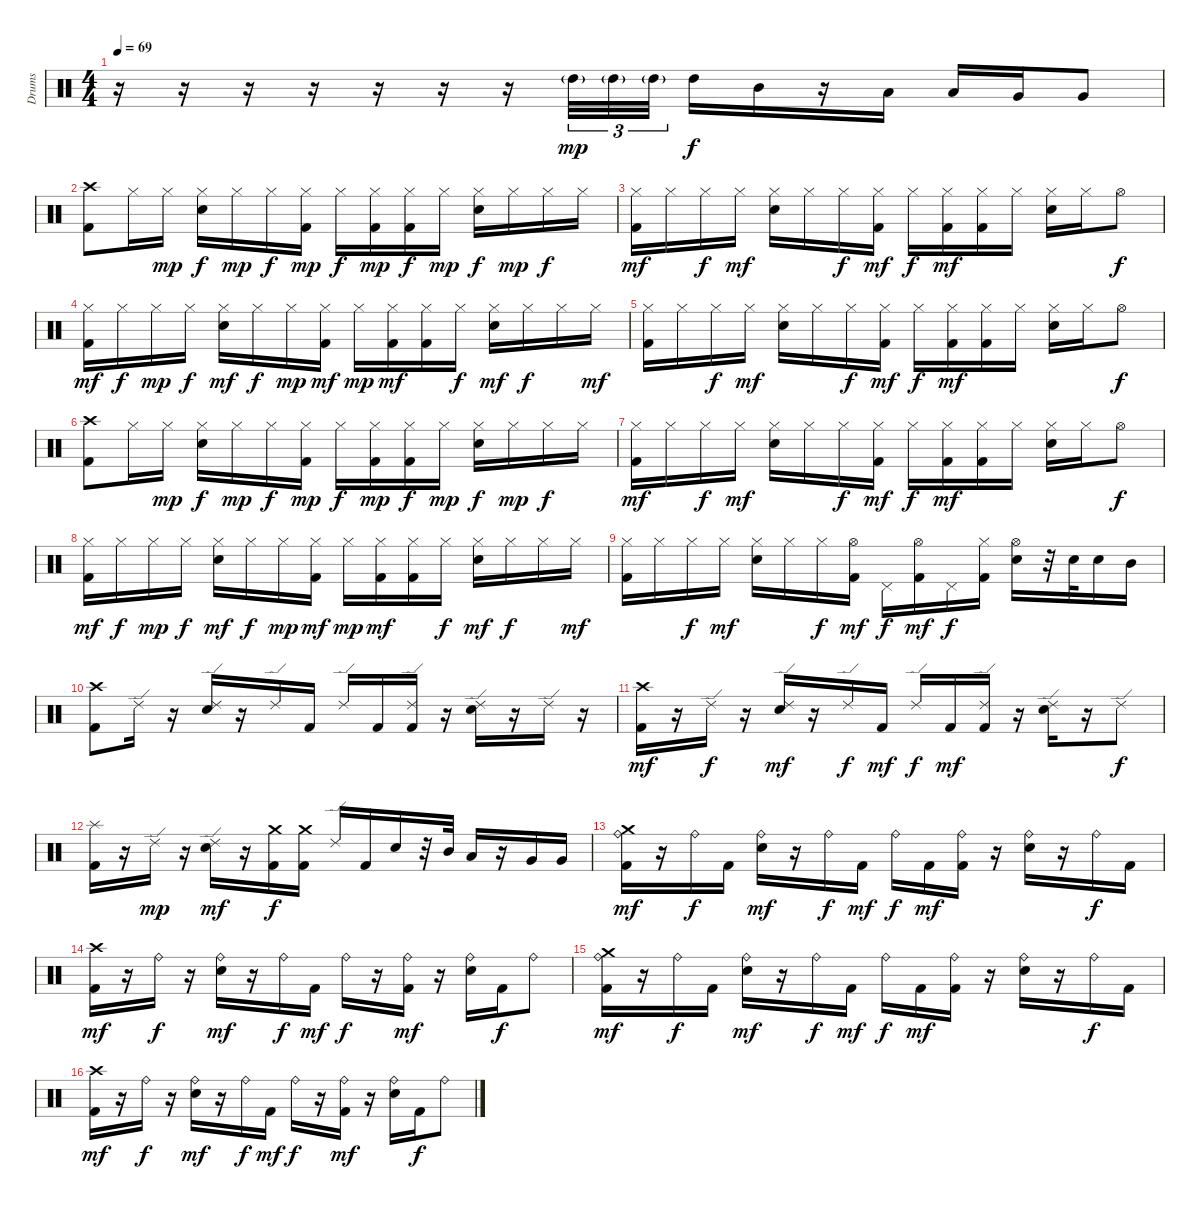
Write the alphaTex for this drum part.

\track ("Drums" "Drums") {instrument percussion}
\staff {score}
\articulation defaults
\ts (4 4)
\tempo 69
\clef neutral
\ks c
r.16{dy f} r.16 r.16 r.16 r.16 r.16 r.16 "High Tom (hit)"{g}.32{tu (3 2) dy mp} "High Tom (hit)"{g}.32{tu (3 2)} "High Tom (hit)"{g}.32{tu (3 2)} "High Tom (hit)".16{dy f} "Mid Tom (hit)".16 r.16 "Low Tom (hit)".16 "Low Tom (hit)".16 "Very Low Tom (hit)".16 "Very Low Tom (hit)".8 |
("Kick (hit) 2" "Crash high (hit)").8 "Hi-Hat (closed)".16 "Hi-Hat (closed)".16{dy mp} ("Hi-Hat (closed)" "Electric Snare (hit)").16{dy f} "Hi-Hat (closed)".16{dy mp} "Hi-Hat (closed)".16{dy f} ("Hi-Hat (closed)" "Kick (hit) 2").16{dy mp} "Hi-Hat (closed)".16{dy f} ("Hi-Hat (closed)" "Kick (hit) 2").16{dy mp} ("Hi-Hat (closed)" "Kick (hit) 2").16{dy f} "Hi-Hat (closed)".16{dy mp} ("Hi-Hat (closed)" "Electric Snare (hit)").16{dy f} "Hi-Hat (closed)".16{dy mp} "Hi-Hat (closed)".16{dy f} "Hi-Hat (closed)".16 |
("Hi-Hat (closed)" "Kick (hit) 2").16{dy mf} "Hi-Hat (closed)".16 "Hi-Hat (closed)".16{dy f} "Hi-Hat (closed)".16{dy mf} ("Hi-Hat (closed)" "Electric Snare (hit)").16 "Hi-Hat (closed)".16 "Hi-Hat (closed)".16{dy f} ("Hi-Hat (closed)" "Kick (hit) 2").16{dy mf} "Hi-Hat (closed)".16{dy f} ("Hi-Hat (closed)" "Kick (hit) 2").16{dy mf} ("Hi-Hat (closed)" "Kick (hit) 2").16 "Hi-Hat (closed)".16 ("Hi-Hat (closed)" "Electric Snare (hit)").16 "Hi-Hat (closed)".16 "Hi-Hat (open)".8{dy f} |
("Kick (hit) 2" "Hi-Hat (closed)").16{dy mf} "Hi-Hat (closed)".16{dy f} "Hi-Hat (closed)".16{dy mp} "Hi-Hat (closed)".16{dy f} ("Hi-Hat (closed)" "Electric Snare (hit)").16{dy mf} "Hi-Hat (closed)".16{dy f} "Hi-Hat (closed)".16{dy mp} ("Hi-Hat (closed)" "Kick (hit) 2").16{dy mf} "Hi-Hat (closed)".16{dy mp} ("Hi-Hat (closed)" "Kick (hit) 2").16{dy mf} ("Hi-Hat (closed)" "Kick (hit) 2").16 "Hi-Hat (closed)".16{dy f} ("Hi-Hat (closed)" "Electric Snare (hit)").16{dy mf} "Hi-Hat (closed)".16{dy f} "Hi-Hat (closed)".16 "Hi-Hat (closed)".16{dy mf} |
("Hi-Hat (closed)" "Kick (hit) 2").16 "Hi-Hat (closed)".16 "Hi-Hat (closed)".16{dy f} "Hi-Hat (closed)".16{dy mf} ("Hi-Hat (closed)" "Electric Snare (hit)").16 "Hi-Hat (closed)".16 "Hi-Hat (closed)".16{dy f} ("Hi-Hat (closed)" "Kick (hit) 2").16{dy mf} "Hi-Hat (closed)".16{dy f} ("Hi-Hat (closed)" "Kick (hit) 2").16{dy mf} ("Hi-Hat (closed)" "Kick (hit) 2").16 "Hi-Hat (closed)".16 ("Hi-Hat (closed)" "Electric Snare (hit)").16 "Hi-Hat (closed)".16 "Hi-Hat (open)".8{dy f} |
("Kick (hit) 2" "Crash high (hit)").8 "Hi-Hat (closed)".16 "Hi-Hat (closed)".16{dy mp} ("Hi-Hat (closed)" "Electric Snare (hit)").16{dy f} "Hi-Hat (closed)".16{dy mp} "Hi-Hat (closed)".16{dy f} ("Hi-Hat (closed)" "Kick (hit) 2").16{dy mp} "Hi-Hat (closed)".16{dy f} ("Hi-Hat (closed)" "Kick (hit) 2").16{dy mp} ("Hi-Hat (closed)" "Kick (hit) 2").16{dy f} "Hi-Hat (closed)".16{dy mp} ("Hi-Hat (closed)" "Electric Snare (hit)").16{dy f} "Hi-Hat (closed)".16{dy mp} "Hi-Hat (closed)".16{dy f} "Hi-Hat (closed)".16 |
("Hi-Hat (closed)" "Kick (hit) 2").16{dy mf} "Hi-Hat (closed)".16 "Hi-Hat (closed)".16{dy f} "Hi-Hat (closed)".16{dy mf} ("Hi-Hat (closed)" "Electric Snare (hit)").16 "Hi-Hat (closed)".16 "Hi-Hat (closed)".16{dy f} ("Hi-Hat (closed)" "Kick (hit) 2").16{dy mf} "Hi-Hat (closed)".16{dy f} ("Hi-Hat (closed)" "Kick (hit) 2").16{dy mf} ("Hi-Hat (closed)" "Kick (hit) 2").16 "Hi-Hat (closed)".16 ("Hi-Hat (closed)" "Electric Snare (hit)").16 "Hi-Hat (closed)".16 "Hi-Hat (open)".8{dy f} |
("Kick (hit) 2" "Hi-Hat (closed)").16{dy mf} "Hi-Hat (closed)".16{dy f} "Hi-Hat (closed)".16{dy mp} "Hi-Hat (closed)".16{dy f} ("Hi-Hat (closed)" "Electric Snare (hit)").16{dy mf} "Hi-Hat (closed)".16{dy f} "Hi-Hat (closed)".16{dy mp} ("Hi-Hat (closed)" "Kick (hit) 2").16{dy mf} "Hi-Hat (closed)".16{dy mp} ("Hi-Hat (closed)" "Kick (hit) 2").16{dy mf} ("Hi-Hat (closed)" "Kick (hit) 2").16 "Hi-Hat (closed)".16{dy f} ("Hi-Hat (closed)" "Electric Snare (hit)").16{dy mf} "Hi-Hat (closed)".16{dy f} "Hi-Hat (closed)".16 "Hi-Hat (closed)".16{dy mf} |
("Hi-Hat (closed)" "Kick (hit) 2").16 "Hi-Hat (closed)".16 "Hi-Hat (closed)".16{dy f} "Hi-Hat (closed)".16{dy mf} ("Hi-Hat (closed)" "Electric Snare (hit)").16 "Hi-Hat (closed)".16 "Hi-Hat (closed)".16{dy f} ("Kick (hit) 2" "Hi-Hat (open)").16{dy mf} "Pedal Hi-Hat (hit)".16{dy f} ("Kick (hit) 2" "Hi-Hat (open)").16{dy mf} "Pedal Hi-Hat (hit)".16{dy f} ("Hi-Hat (closed)" "Kick (hit) 2").16 ("Hi-Hat (open)" "Electric Snare (hit)").16 r.32 "Electric Snare (hit)".32 "Electric Snare (hit)".16 "Mid Tom (hit)".16 |
("Kick (hit) 2" "Crash high (hit)").8 "Ride (edge) 2".16 r.16 ("Ride (edge) 2" "Electric Snare (hit)").16 r.16 "Ride (edge) 2".16 "Kick (hit) 2".16 "Ride (edge) 2".16 "Kick (hit) 2".16 ("Ride (edge) 2" "Kick (hit) 2").16 r.16 ("Ride (edge) 2" "Electric Snare (hit)").16 r.16 "Ride (edge) 2".16 r.16 |
("Crash high (hit)" "Kick (hit) 2").16{dy mf} r.16 "Ride (edge) 2".16{dy f} r.16 ("Ride (edge) 2" "Electric Snare (hit)").16{dy mf} r.16 "Ride (edge) 2".16{dy f} "Kick (hit) 2".16{dy mf} "Ride (edge) 2".16{dy f} "Kick (hit) 2".16{dy mf} ("Ride (edge) 2" "Kick (hit) 2").16 r.16 ("Ride (edge) 2" "Electric Snare (hit)").16 r.16 "Ride (edge) 2".8{dy f} |
("Kick (hit) 2" "Splash (hit)").16 r.16 "Ride (edge) 2".16{dy mp} r.16 ("Ride (edge) 2" "Electric Snare (hit)").16{dy mf} r.16 ("Crash medium (hit)" "Kick (hit) 2").16{dy f} ("Crash medium (hit)" "Kick (hit) 2").16 "Ride (edge) 2".16 "Kick (hit) 2".16 "Electric Snare (hit)".16 r.32 "Mid Tom (hit)".32 "Low Tom (hit)".16 r.16 "Very Low Tom (hit)".16 "Very Low Tom (hit)".16 |
("Ride (bell)" "Kick (hit) 2" "Crash medium (hit)").16{dy mf} r.16 "Ride (bell)".16{dy f} "Kick (hit) 2".16 ("Ride (bell)" "Electric Snare (hit)").16{dy mf} r.16 "Ride (bell)".16{dy f} "Kick (hit) 2".16{dy mf} "Ride (bell)".16{dy f} "Kick (hit) 2".16{dy mf} ("Ride (bell)" "Kick (hit) 2").16 r.16 ("Ride (bell)" "Electric Snare (hit)").16 r.16 "Ride (bell)".16{dy f} "Kick (hit) 2".16 |
("Kick (hit) 2" "Crash high (hit)").16{dy mf} r.16 "Ride (bell)".16{dy f} r.16 ("Ride (bell)" "Electric Snare (hit)").16{dy mf} r.16 "Ride (bell)".16{dy f} "Kick (hit) 2".16{dy mf} "Ride (bell)".16{dy f} r.16 ("Ride (bell)" "Kick (hit) 2").16{dy mf} r.16 ("Ride (bell)" "Electric Snare (hit)").16 "Kick (hit) 2".16{dy f} "Ride (bell)".8 |
("Ride (bell)" "Kick (hit) 2" "Crash medium (hit)").16{dy mf} r.16 "Ride (bell)".16{dy f} "Kick (hit) 2".16 ("Ride (bell)" "Electric Snare (hit)").16{dy mf} r.16 "Ride (bell)".16{dy f} "Kick (hit) 2".16{dy mf} "Ride (bell)".16{dy f} "Kick (hit) 2".16{dy mf} ("Ride (bell)" "Kick (hit) 2").16 r.16 ("Ride (bell)" "Electric Snare (hit)").16 r.16 "Ride (bell)".16{dy f} "Kick (hit) 2".16 |
("Kick (hit) 2" "Crash high (hit)").16{dy mf} r.16 "Ride (bell)".16{dy f} r.16 ("Ride (bell)" "Electric Snare (hit)").16{dy mf} r.16 "Ride (bell)".16{dy f} "Kick (hit) 2".16{dy mf} "Ride (bell)".16{dy f} r.16 ("Ride (bell)" "Kick (hit) 2").16{dy mf} r.16 ("Ride (bell)" "Electric Snare (hit)").16 "Kick (hit) 2".16{dy f} "Ride (bell)".8
